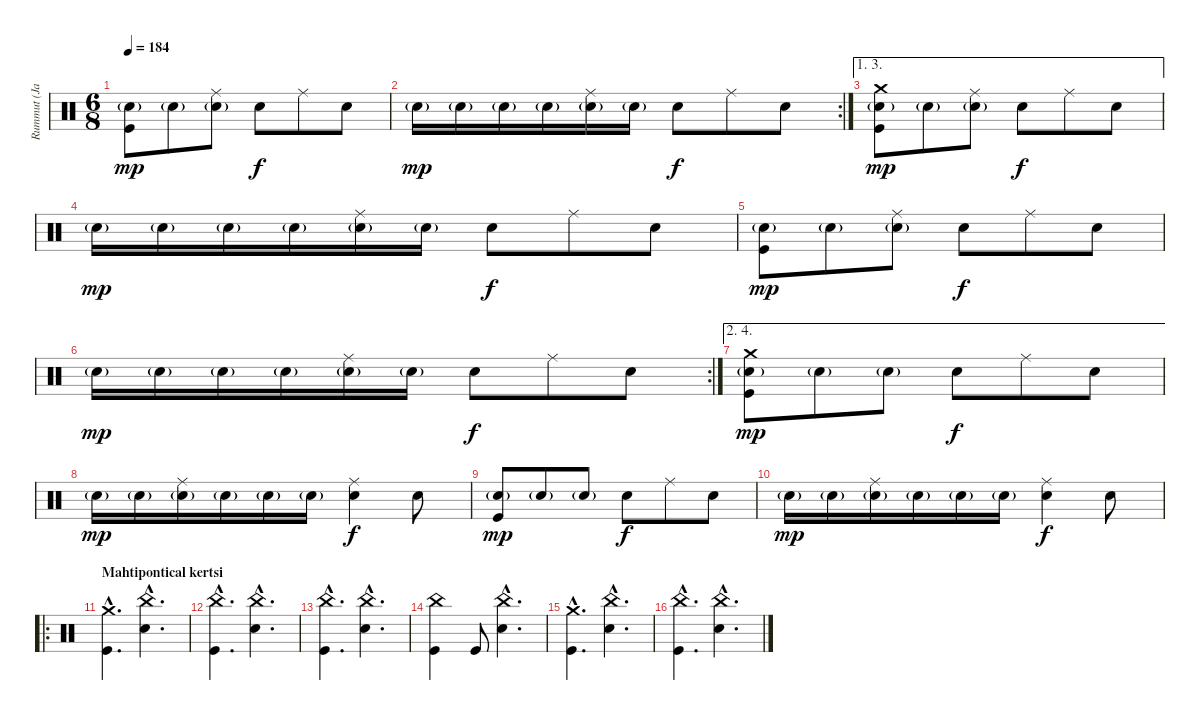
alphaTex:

\track ("Rummut (Janne)" "Rummut (Ja") {instrument percussion}
\staff {score}
\articulation defaults
\ts (6 8)
\tempo 184
\clef neutral
\ks c
("Snare (hit) 2"{g} "Kick (hit)").8{dy mp} "Snare (hit) 2"{g}.8 ("Ride (middle)" "Snare (hit) 2"{g}).8 "Snare (hit) 2".8{dy f} "Ride (middle)".8 "Snare (hit) 2".8 |
\rc 2 "Snare (hit) 2"{g}.16{dy mp} "Snare (hit) 2"{g}.16 "Snare (hit) 2"{g}.16 "Snare (hit) 2"{g}.16
("Ride (middle)" "Snare (hit) 2"{g}).16 "Snare (hit) 2"{g}.16 "Snare (hit) 2".8{dy f} "Ride (middle)".8 "Snare (hit) 2".8 |
\ae (1 3)
("Crash medium (hit)" "Snare (hit) 2"{g} "Kick (hit)").8{dy mp} "Snare (hit) 2"{g}.8 ("Ride (middle)" "Snare (hit) 2"{g}).8 "Snare (hit) 2".8{dy f} "Ride (middle)".8 "Snare (hit) 2".8 |
"Snare (hit) 2"{g}.16{dy mp} "Snare (hit) 2"{g}.16 "Snare (hit) 2"{g}.16 "Snare (hit) 2"{g}.16 ("Ride (middle)" "Snare (hit) 2"{g}).16 "Snare (hit) 2"{g}.16 "Snare (hit) 2".8{dy f} "Ride (middle)".8 "Snare (hit) 2".8 |
("Snare (hit) 2"{g} "Kick (hit)").8{dy mp} "Snare (hit) 2"{g}.8 ("Ride (middle)" "Snare (hit) 2"{g}).8 "Snare (hit) 2".8{dy f} "Ride (middle)".8 "Snare (hit) 2".8 |
\rc 2 "Snare (hit) 2"{g}.16{dy mp} "Snare (hit) 2"{g}.16 "Snare (hit) 2"{g}.16 "Snare (hit) 2"{g}.16
("Ride (middle)" "Snare (hit) 2"{g}).16 "Snare (hit) 2"{g}.16 "Snare (hit) 2".8{dy f} "Ride (middle)".8 "Snare (hit) 2".8 |
\ae (2 4)
("Crash medium (hit)" "Snare (hit) 2"{g} "Kick (hit)").8{dy mp} "Snare (hit) 2"{g}.8 "Snare (hit) 2"{g}.8 "Snare (hit) 2".8{dy f} "Ride (middle)".8 "Snare (hit) 2".8 |
"Snare (hit) 2"{g}.16{dy mp} "Snare (hit) 2"{g}.16 ("Ride (middle)" "Snare (hit) 2"{g}).16 "Snare (hit) 2"{g}.16 "Snare (hit) 2"{g}.16 "Snare (hit) 2"{g}.16 ("Ride (middle)" "Snare (hit) 2").4{dy f} "Snare (hit) 2".8 |
("Snare (hit) 2"{g} "Kick (hit)").8{dy mp} "Snare (hit) 2"{g}.8 "Snare (hit) 2"{g}.8 "Snare (hit) 2".8{dy f} "Ride (middle)".8 "Snare (hit) 2".8 |
"Snare (hit) 2"{g}.16{dy mp} "Snare (hit) 2"{g}.16 ("Ride (middle)" "Snare (hit) 2"{g}).16 "Snare (hit) 2"{g}.16 "Snare (hit) 2"{g}.16 "Snare (hit) 2"{g}.16 ("Ride (middle)" "Snare (hit) 2").4{dy f} "Snare (hit) 2".8 |
\ro
\section ("" "Mahtipontical kertsi")
("Crash medium (hit)"{hac} "Kick (hit)"{hac}).4{d} ("China (hit)"{hac} "Snare (hit) 2"{hac}).4{d} |
("China (hit)"{hac} "Kick (hit)"{hac}).4{d} ("China (hit)"{hac} "Snare (hit) 2"{hac}).4{d} |
("China (hit)"{hac} "Kick (hit)"{hac}).4{d} ("China (hit)"{hac} "Snare (hit) 2"{hac}).4{d} |
("China (hit)" "Kick (hit)").4 "Kick (hit)".8 ("China (hit)"{hac} "Snare (hit) 2"{hac}).4{d} |
("Crash medium (hit)"{hac} "Kick (hit)"{hac}).4{d} ("China (hit)"{hac} "Snare (hit) 2"{hac}).4{d} |
("China (hit)"{hac} "Kick (hit)"{hac}).4{d} ("China (hit)"{hac} "Snare (hit) 2"{hac}).4{d}
